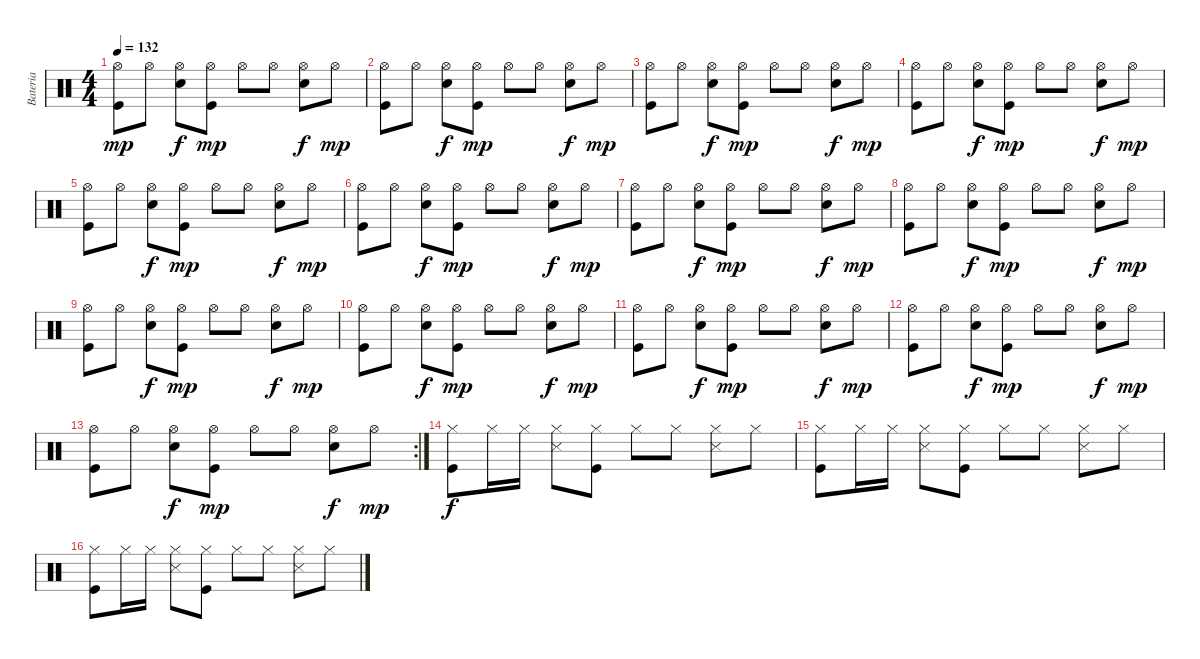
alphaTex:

\track ("Bateria" "Bateria") {instrument percussion}
\staff {score}
\articulation defaults
\ts (4 4)
\tempo 132
\clef neutral
\ks c
("Hi-Hat (open)" "Kick (hit)").8{dy mp} "Hi-Hat (open)".8 ("Hi-Hat (open)" "Electric Snare (hit)").8{dy f} ("Hi-Hat (open)" "Kick (hit)").8{dy mp} "Hi-Hat (open)".8 "Hi-Hat (open)".8 ("Hi-Hat (open)" "Electric Snare (hit)").8{dy f} "Hi-Hat (open)".8{dy mp} |
("Hi-Hat (open)" "Kick (hit)").8 "Hi-Hat (open)".8 ("Hi-Hat (open)" "Electric Snare (hit)").8{dy f} ("Hi-Hat (open)" "Kick (hit)").8{dy mp} "Hi-Hat (open)".8 "Hi-Hat (open)".8 ("Hi-Hat (open)" "Electric Snare (hit)").8{dy f} "Hi-Hat (open)".8{dy mp} |
("Hi-Hat (open)" "Kick (hit)").8 "Hi-Hat (open)".8 ("Hi-Hat (open)" "Electric Snare (hit)").8{dy f} ("Hi-Hat (open)" "Kick (hit)").8{dy mp} "Hi-Hat (open)".8 "Hi-Hat (open)".8 ("Hi-Hat (open)" "Electric Snare (hit)").8{dy f} "Hi-Hat (open)".8{dy mp} |
("Hi-Hat (open)" "Kick (hit)").8 "Hi-Hat (open)".8 ("Hi-Hat (open)" "Electric Snare (hit)").8{dy f} ("Hi-Hat (open)" "Kick (hit)").8{dy mp} "Hi-Hat (open)".8 "Hi-Hat (open)".8 ("Hi-Hat (open)" "Electric Snare (hit)").8{dy f} "Hi-Hat (open)".8{dy mp} |
("Hi-Hat (open)" "Kick (hit)").8 "Hi-Hat (open)".8 ("Hi-Hat (open)" "Electric Snare (hit)").8{dy f} ("Hi-Hat (open)" "Kick (hit)").8{dy mp} "Hi-Hat (open)".8 "Hi-Hat (open)".8 ("Hi-Hat (open)" "Electric Snare (hit)").8{dy f} "Hi-Hat (open)".8{dy mp} |
("Hi-Hat (open)" "Kick (hit)").8 "Hi-Hat (open)".8 ("Hi-Hat (open)" "Electric Snare (hit)").8{dy f} ("Hi-Hat (open)" "Kick (hit)").8{dy mp} "Hi-Hat (open)".8 "Hi-Hat (open)".8 ("Hi-Hat (open)" "Electric Snare (hit)").8{dy f} "Hi-Hat (open)".8{dy mp} |
("Hi-Hat (open)" "Kick (hit)").8 "Hi-Hat (open)".8 ("Hi-Hat (open)" "Electric Snare (hit)").8{dy f} ("Hi-Hat (open)" "Kick (hit)").8{dy mp} "Hi-Hat (open)".8 "Hi-Hat (open)".8 ("Hi-Hat (open)" "Electric Snare (hit)").8{dy f} "Hi-Hat (open)".8{dy mp} |
("Hi-Hat (open)" "Kick (hit)").8 "Hi-Hat (open)".8 ("Hi-Hat (open)" "Electric Snare (hit)").8{dy f} ("Hi-Hat (open)" "Kick (hit)").8{dy mp} "Hi-Hat (open)".8 "Hi-Hat (open)".8 ("Hi-Hat (open)" "Electric Snare (hit)").8{dy f} "Hi-Hat (open)".8{dy mp} |
("Hi-Hat (open)" "Kick (hit)").8 "Hi-Hat (open)".8 ("Hi-Hat (open)" "Electric Snare (hit)").8{dy f} ("Hi-Hat (open)" "Kick (hit)").8{dy mp} "Hi-Hat (open)".8 "Hi-Hat (open)".8 ("Hi-Hat (open)" "Electric Snare (hit)").8{dy f} "Hi-Hat (open)".8{dy mp} |
("Hi-Hat (open)" "Kick (hit)").8 "Hi-Hat (open)".8 ("Hi-Hat (open)" "Electric Snare (hit)").8{dy f} ("Hi-Hat (open)" "Kick (hit)").8{dy mp} "Hi-Hat (open)".8 "Hi-Hat (open)".8 ("Hi-Hat (open)" "Electric Snare (hit)").8{dy f} "Hi-Hat (open)".8{dy mp} |
("Hi-Hat (open)" "Kick (hit)").8 "Hi-Hat (open)".8 ("Hi-Hat (open)" "Electric Snare (hit)").8{dy f} ("Hi-Hat (open)" "Kick (hit)").8{dy mp} "Hi-Hat (open)".8 "Hi-Hat (open)".8 ("Hi-Hat (open)" "Electric Snare (hit)").8{dy f} "Hi-Hat (open)".8{dy mp} |
("Hi-Hat (open)" "Kick (hit)").8 "Hi-Hat (open)".8 ("Hi-Hat (open)" "Electric Snare (hit)").8{dy f} ("Hi-Hat (open)" "Kick (hit)").8{dy mp} "Hi-Hat (open)".8 "Hi-Hat (open)".8 ("Hi-Hat (open)" "Electric Snare (hit)").8{dy f} "Hi-Hat (open)".8{dy mp} |
\rc 2
("Hi-Hat (open)" "Kick (hit)").8 "Hi-Hat (open)".8 ("Hi-Hat (open)" "Electric Snare (hit)").8{dy f} ("Hi-Hat (open)" "Kick (hit)").8{dy mp} "Hi-Hat (open)".8 "Hi-Hat (open)".8 ("Hi-Hat (open)" "Electric Snare (hit)").8{dy f} "Hi-Hat (open)".8{dy mp} |
("Hi-Hat (closed)" "Kick (hit)").8{dy f} "Hi-Hat (closed)".16 "Hi-Hat (closed)".16 ("Hi-Hat (closed)" "Snare (side stick) 3").8 ("Hi-Hat (closed)" "Kick (hit)").8 "Hi-Hat (closed)".8 "Hi-Hat (closed)".8 ("Hi-Hat (closed)" "Snare (side stick) 3").8 "Hi-Hat (closed)".8 |
("Hi-Hat (closed)" "Kick (hit)").8 "Hi-Hat (closed)".16 "Hi-Hat (closed)".16 ("Hi-Hat (closed)" "Snare (side stick) 3").8 ("Hi-Hat (closed)" "Kick (hit)").8 "Hi-Hat (closed)".8 "Hi-Hat (closed)".8 ("Hi-Hat (closed)" "Snare (side stick) 3").8 "Hi-Hat (closed)".8 |
("Hi-Hat (closed)" "Kick (hit)").8 "Hi-Hat (closed)".16 "Hi-Hat (closed)".16 ("Hi-Hat (closed)" "Snare (side stick) 3").8 ("Hi-Hat (closed)" "Kick (hit)").8 "Hi-Hat (closed)".8 "Hi-Hat (closed)".8 ("Hi-Hat (closed)" "Snare (side stick) 3").8 "Hi-Hat (closed)".8
